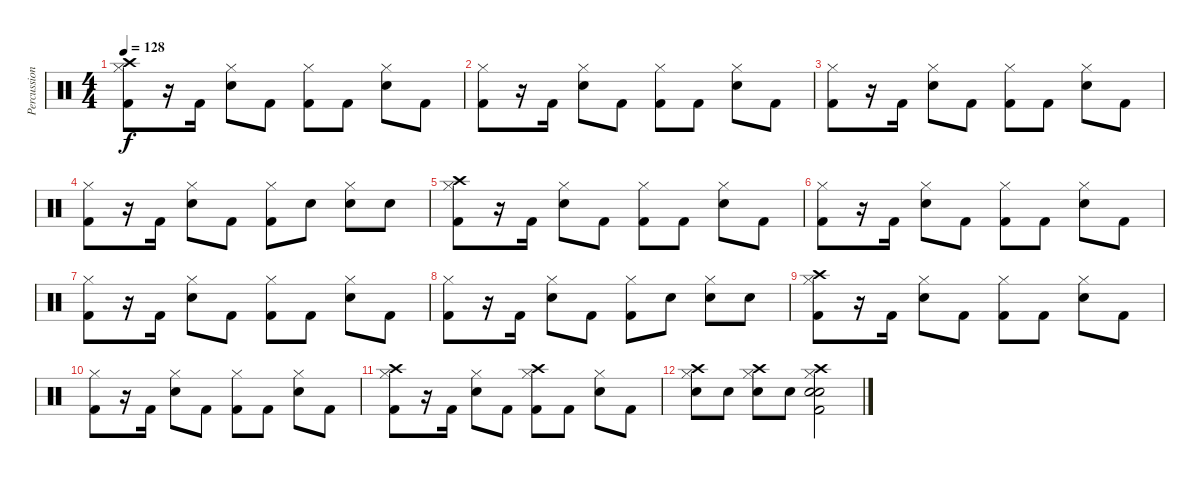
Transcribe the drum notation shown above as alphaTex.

\track ("Percussion" "Percussion") {instrument percussion}
\staff {score}
\articulation defaults
\ts (4 4)
\tempo 128
\clef neutral
\ks c
("Crash high (hit)" "Hi-Hat (closed)" "Kick (hit) 2").8{dy f} r.16 "Kick (hit) 2".16 ("Hi-Hat (closed)" "Snare (hit) 2").8 "Kick (hit) 2".8 ("Hi-Hat (closed)" "Kick (hit) 2").8 "Kick (hit) 2".8 ("Hi-Hat (closed)" "Snare (hit) 2").8 "Kick (hit) 2".8 |
("Hi-Hat (closed)" "Kick (hit) 2").8 r.16 "Kick (hit) 2".16 ("Hi-Hat (closed)" "Snare (hit) 2").8 "Kick (hit) 2".8 ("Hi-Hat (closed)" "Kick (hit) 2").8 "Kick (hit) 2".8 ("Hi-Hat (closed)" "Snare (hit) 2").8 "Kick (hit) 2".8 |
("Hi-Hat (closed)" "Kick (hit) 2").8 r.16 "Kick (hit) 2".16 ("Hi-Hat (closed)" "Snare (hit) 2").8 "Kick (hit) 2".8 ("Hi-Hat (closed)" "Kick (hit) 2").8 "Kick (hit) 2".8 ("Hi-Hat (closed)" "Snare (hit) 2").8 "Kick (hit) 2".8 |
("Hi-Hat (closed)" "Kick (hit) 2").8 r.16 "Kick (hit) 2".16 ("Hi-Hat (closed)" "Snare (hit) 2").8 "Kick (hit) 2".8 ("Hi-Hat (closed)" "Kick (hit) 2").8 "Snare (hit) 2".8 ("Hi-Hat (closed)" "Snare (hit) 2").8 "Snare (hit) 2".8 |
("Crash high (hit)" "Hi-Hat (closed)" "Kick (hit) 2").8 r.16 "Kick (hit) 2".16 ("Hi-Hat (closed)" "Snare (hit) 2").8 "Kick (hit) 2".8 ("Hi-Hat (closed)" "Kick (hit) 2").8 "Kick (hit) 2".8 ("Hi-Hat (closed)" "Snare (hit) 2").8 "Kick (hit) 2".8 |
("Hi-Hat (closed)" "Kick (hit) 2").8 r.16 "Kick (hit) 2".16 ("Hi-Hat (closed)" "Snare (hit) 2").8 "Kick (hit) 2".8 ("Hi-Hat (closed)" "Kick (hit) 2").8 "Kick (hit) 2".8 ("Hi-Hat (closed)" "Snare (hit) 2").8 "Kick (hit) 2".8 |
("Hi-Hat (closed)" "Kick (hit) 2").8 r.16 "Kick (hit) 2".16 ("Hi-Hat (closed)" "Snare (hit) 2").8 "Kick (hit) 2".8 ("Hi-Hat (closed)" "Kick (hit) 2").8 "Kick (hit) 2".8 ("Hi-Hat (closed)" "Snare (hit) 2").8 "Kick (hit) 2".8 |
("Hi-Hat (closed)" "Kick (hit) 2").8 r.16 "Kick (hit) 2".16 ("Hi-Hat (closed)" "Snare (hit) 2").8 "Kick (hit) 2".8 ("Hi-Hat (closed)" "Kick (hit) 2").8 "Snare (hit) 2".8 ("Hi-Hat (closed)" "Snare (hit) 2").8 "Snare (hit) 2".8 |
("Crash high (hit)" "Hi-Hat (closed)" "Kick (hit) 2").8 r.16 "Kick (hit) 2".16 ("Hi-Hat (closed)" "Snare (hit) 2").8 "Kick (hit) 2".8 ("Hi-Hat (closed)" "Kick (hit) 2").8 "Kick (hit) 2".8 ("Hi-Hat (closed)" "Snare (hit) 2").8 "Kick (hit) 2".8 |
("Hi-Hat (closed)" "Kick (hit) 2").8 r.16 "Kick (hit) 2".16 ("Hi-Hat (closed)" "Snare (hit) 2").8 "Kick (hit) 2".8 ("Hi-Hat (closed)" "Kick (hit) 2").8 "Kick (hit) 2".8 ("Hi-Hat (closed)" "Snare (hit) 2").8 "Kick (hit) 2".8 |
("Crash high (hit)" "Hi-Hat (closed)" "Kick (hit) 2").8 r.16 "Kick (hit) 2".16 ("Hi-Hat (closed)" "Snare (hit) 2").8 "Kick (hit) 2".8 ("Crash high (hit)" "Hi-Hat (closed)" "Kick (hit) 2").8 "Kick (hit) 2".8 ("Hi-Hat (closed)" "Snare (hit) 2").8 "Kick (hit) 2".8 |
("Crash high (hit)" "Hi-Hat (closed)" "Snare (hit) 2").8 "Snare (hit) 2".8 ("Crash high (hit)" "Hi-Hat (closed)" "Snare (hit) 2").8 "Snare (hit) 2".8 ("Crash high (hit)" "Snare (hit) 2" "Electric Snare (hit)" "Kick (hit) 2" "Hi-Hat (closed)").2
